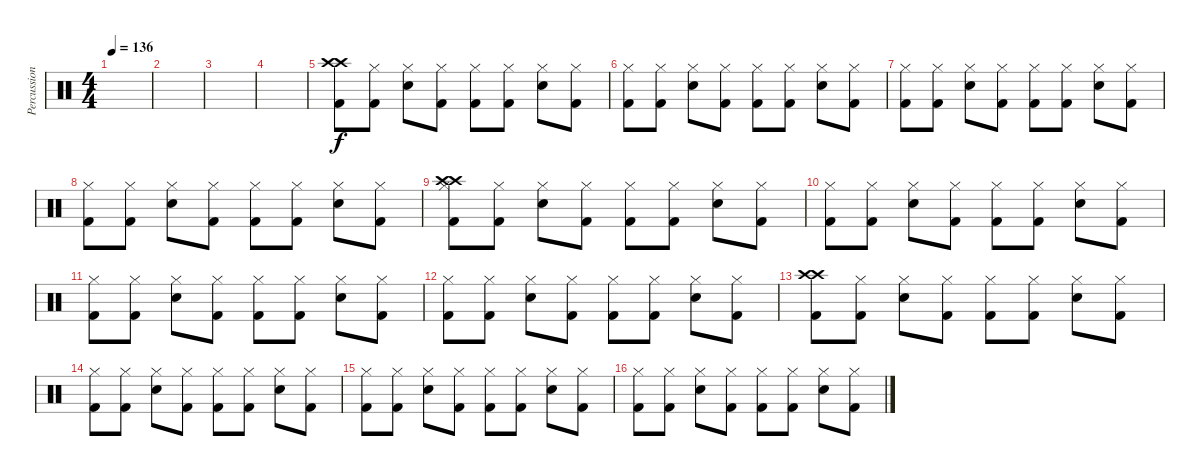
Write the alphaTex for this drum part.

\track ("Percussion" "Percussion") {instrument percussion}
\staff {score}
\articulation defaults
\ts (4 4)
\tempo 136
\clef neutral
\ks c
|
|
|
|
("Crash high (hit)" "Crash high (hit)" "Kick (hit) 2").8 ("Hi-Hat (closed)" "Kick (hit) 2").8 ("Hi-Hat (closed)" "Electric Snare (hit)").8 ("Hi-Hat (closed)" "Kick (hit) 2").8 ("Hi-Hat (closed)" "Kick (hit) 2").8 ("Hi-Hat (closed)" "Kick (hit) 2").8 ("Hi-Hat (closed)" "Electric Snare (hit)").8 ("Hi-Hat (closed)" "Kick (hit) 2").8 |
("Hi-Hat (closed)" "Kick (hit) 2").8 ("Hi-Hat (closed)" "Kick (hit) 2").8 ("Hi-Hat (closed)" "Electric Snare (hit)").8 ("Hi-Hat (closed)" "Kick (hit) 2").8 ("Hi-Hat (closed)" "Kick (hit) 2").8 ("Hi-Hat (closed)" "Kick (hit) 2").8 ("Hi-Hat (closed)" "Electric Snare (hit)").8 ("Hi-Hat (closed)" "Kick (hit) 2").8 |
("Hi-Hat (closed)" "Kick (hit) 2").8 ("Hi-Hat (closed)" "Kick (hit) 2").8 ("Hi-Hat (closed)" "Electric Snare (hit)").8 ("Hi-Hat (closed)" "Kick (hit) 2").8 ("Hi-Hat (closed)" "Kick (hit) 2").8 ("Hi-Hat (closed)" "Kick (hit) 2").8 ("Hi-Hat (closed)" "Electric Snare (hit)").8 ("Hi-Hat (closed)" "Kick (hit) 2").8 |
("Hi-Hat (closed)" "Kick (hit) 2").8 ("Hi-Hat (closed)" "Kick (hit) 2").8 ("Hi-Hat (closed)" "Electric Snare (hit)").8 ("Hi-Hat (closed)" "Kick (hit) 2").8 ("Hi-Hat (closed)" "Kick (hit) 2").8 ("Hi-Hat (closed)" "Kick (hit) 2").8 ("Hi-Hat (closed)" "Electric Snare (hit)").8 ("Hi-Hat (closed)" "Kick (hit) 2").8 |
("Crash high (hit)" "Crash high (hit)" "Hi-Hat (closed)" "Kick (hit) 2").8 ("Hi-Hat (closed)" "Kick (hit) 2").8 ("Hi-Hat (closed)" "Electric Snare (hit)").8 ("Hi-Hat (closed)" "Kick (hit) 2").8 ("Hi-Hat (closed)" "Kick (hit) 2").8 ("Hi-Hat (closed)" "Kick (hit) 2").8 ("Hi-Hat (closed)" "Electric Snare (hit)").8 ("Hi-Hat (closed)" "Kick (hit) 2").8 |
("Hi-Hat (closed)" "Kick (hit) 2").8 ("Hi-Hat (closed)" "Kick (hit) 2").8 ("Hi-Hat (closed)" "Electric Snare (hit)").8 ("Hi-Hat (closed)" "Kick (hit) 2").8 ("Hi-Hat (closed)" "Kick (hit) 2").8 ("Hi-Hat (closed)" "Kick (hit) 2").8 ("Hi-Hat (closed)" "Electric Snare (hit)").8 ("Hi-Hat (closed)" "Kick (hit) 2").8 |
("Hi-Hat (closed)" "Kick (hit) 2").8 ("Hi-Hat (closed)" "Kick (hit) 2").8 ("Hi-Hat (closed)" "Electric Snare (hit)").8 ("Hi-Hat (closed)" "Kick (hit) 2").8 ("Hi-Hat (closed)" "Kick (hit) 2").8 ("Hi-Hat (closed)" "Kick (hit) 2").8 ("Hi-Hat (closed)" "Electric Snare (hit)").8 ("Hi-Hat (closed)" "Kick (hit) 2").8 |
("Hi-Hat (closed)" "Kick (hit) 2").8 ("Hi-Hat (closed)" "Kick (hit) 2").8 ("Hi-Hat (closed)" "Electric Snare (hit)").8 ("Hi-Hat (closed)" "Kick (hit) 2").8 ("Hi-Hat (closed)" "Kick (hit) 2").8 ("Hi-Hat (closed)" "Kick (hit) 2").8 ("Hi-Hat (closed)" "Electric Snare (hit)").8 ("Hi-Hat (closed)" "Kick (hit) 2").8 |
("Crash high (hit)" "Crash high (hit)" "Kick (hit) 2").8 ("Hi-Hat (closed)" "Kick (hit) 2").8 ("Hi-Hat (closed)" "Electric Snare (hit)").8 ("Hi-Hat (closed)" "Kick (hit) 2").8 ("Hi-Hat (closed)" "Kick (hit) 2").8 ("Hi-Hat (closed)" "Kick (hit) 2").8 ("Hi-Hat (closed)" "Electric Snare (hit)").8 ("Hi-Hat (closed)" "Kick (hit) 2").8 |
("Hi-Hat (closed)" "Kick (hit) 2").8 ("Hi-Hat (closed)" "Kick (hit) 2").8 ("Hi-Hat (closed)" "Electric Snare (hit)").8 ("Hi-Hat (closed)" "Kick (hit) 2").8 ("Hi-Hat (closed)" "Kick (hit) 2").8 ("Hi-Hat (closed)" "Kick (hit) 2").8 ("Hi-Hat (closed)" "Electric Snare (hit)").8 ("Hi-Hat (closed)" "Kick (hit) 2").8 |
("Hi-Hat (closed)" "Kick (hit) 2").8 ("Hi-Hat (closed)" "Kick (hit) 2").8 ("Hi-Hat (closed)" "Electric Snare (hit)").8 ("Hi-Hat (closed)" "Kick (hit) 2").8 ("Hi-Hat (closed)" "Kick (hit) 2").8 ("Hi-Hat (closed)" "Kick (hit) 2").8 ("Hi-Hat (closed)" "Electric Snare (hit)").8 ("Hi-Hat (closed)" "Kick (hit) 2").8 |
("Hi-Hat (closed)" "Kick (hit) 2").8 ("Hi-Hat (closed)" "Kick (hit) 2").8 ("Hi-Hat (closed)" "Electric Snare (hit)").8 ("Hi-Hat (closed)" "Kick (hit) 2").8 ("Hi-Hat (closed)" "Kick (hit) 2").8 ("Hi-Hat (closed)" "Kick (hit) 2").8 ("Hi-Hat (closed)" "Electric Snare (hit)").8 ("Hi-Hat (closed)" "Kick (hit) 2").8
